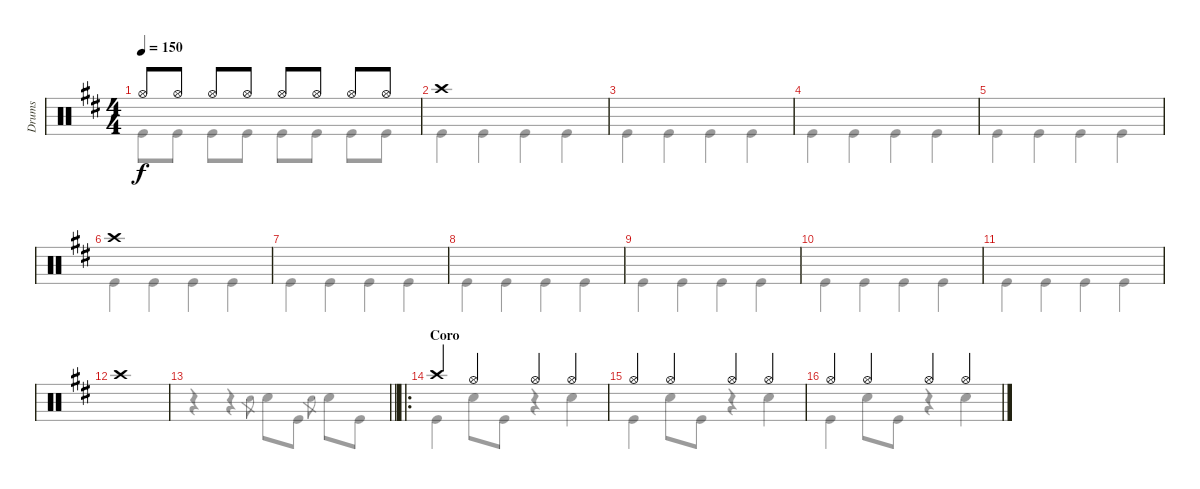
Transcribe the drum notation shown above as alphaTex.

\track ("Drums" "Drums") {instrument percussion}
\staff {score}
\articulation defaults
\voice
\ts (4 4)
\tempo 150
\clef neutral
\ks bminor "Hi-Hat (open)".8{dy f} "Hi-Hat (open)".8 "Hi-Hat (open)".8 "Hi-Hat (open)".8 "Hi-Hat (open)".8 "Hi-Hat (open)".8 "Hi-Hat (open)".8 "Hi-Hat (open)".8
|
"Crash high (hit)".1 |
|
|
|
"Crash high (hit)".1 |
|
|
|
|
|
"Crash high (hit)".1 |
\barLineRight lightlight
|
\ro
\section ("" "Coro")
"Crash high (hit)".4 "Hi-Hat (open)".4 "Hi-Hat (open)".4 "Hi-Hat (open)".4 |
"Hi-Hat (open)".4 "Hi-Hat (open)".4 "Hi-Hat (open)".4 "Hi-Hat (open)".4 |
"Hi-Hat (open)".4 "Hi-Hat (open)".4 "Hi-Hat (open)".4 "Hi-Hat (open)".4
\voice
\clef neutral
\ottava regular
\simile none
\ks bminor "Kick (hit)".8{dy f} "Kick (hit)".8 "Kick (hit)".8 "Kick (hit)".8 "Kick (hit)".8 "Kick (hit)".8 "Kick (hit)".8 "Kick (hit)".8
|
"Kick (hit)".4 "Kick (hit)".4 "Kick (hit)".4 "Kick (hit)".4 |
"Kick (hit)".4 "Kick (hit)".4 "Kick (hit)".4 "Kick (hit)".4 |
"Kick (hit)".4 "Kick (hit)".4 "Kick (hit)".4 "Kick (hit)".4 |
"Kick (hit)".4 "Kick (hit)".4 "Kick (hit)".4 "Kick (hit)".4 |
"Kick (hit)".4 "Kick (hit)".4 "Kick (hit)".4 "Kick (hit)".4 |
"Kick (hit)".4 "Kick (hit)".4 "Kick (hit)".4 "Kick (hit)".4 |
"Kick (hit)".4 "Kick (hit)".4 "Kick (hit)".4 "Kick (hit)".4 |
"Kick (hit)".4 "Kick (hit)".4 "Kick (hit)".4 "Kick (hit)".4 |
"Kick (hit)".4 "Kick (hit)".4 "Kick (hit)".4 "Kick (hit)".4 |
"Kick (hit)".4 "Kick (hit)".4 "Kick (hit)".4 "Kick (hit)".4 |
|
\barLineRight lightlight
r.4 r.4 "Snare (hit) 2".8{gr} "Snare (hit) 2".8 "Kick (hit)".8 "Snare (hit) 2".8{gr} "Snare (hit) 2".8 "Kick (hit)".8 |
"Kick (hit)".4 "Snare (hit) 2".8 "Kick (hit)".8 r.4 "Snare (hit) 2".4 |
"Kick (hit)".4 "Snare (hit) 2".8 "Kick (hit)".8 r.4 "Snare (hit) 2".4 |
"Kick (hit)".4 "Snare (hit) 2".8 "Kick (hit)".8 r.4 "Snare (hit) 2".4
